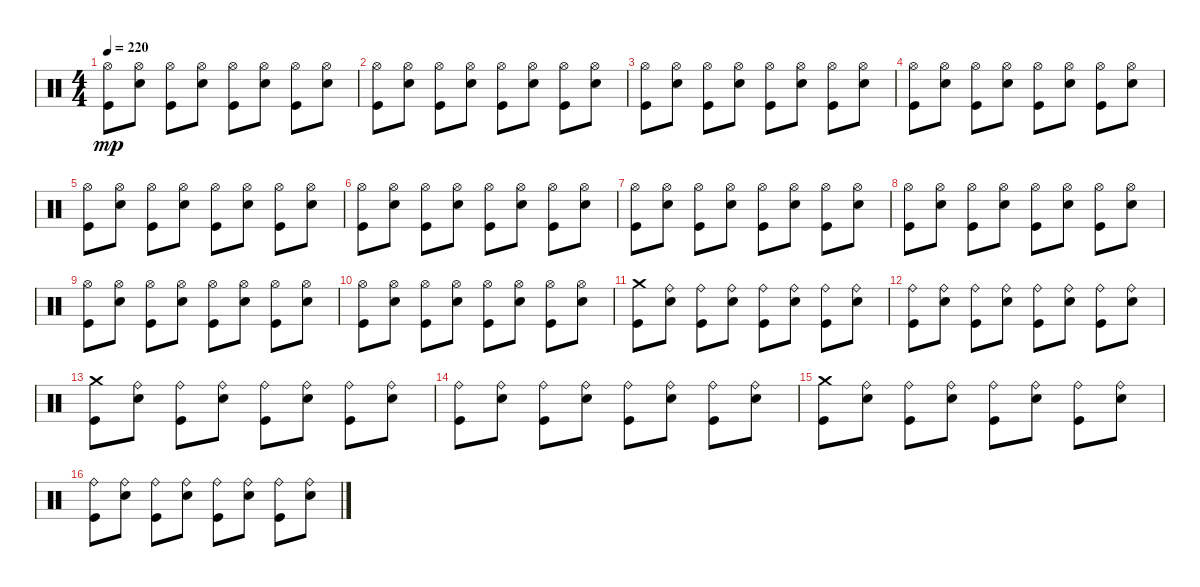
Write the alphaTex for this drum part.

\track "" {instrument percussion}
\staff {score}
\articulation defaults
\ts (4 4)
\tempo 220
\clef neutral
\ks c
("Kick (hit)" "Hi-Hat (open)").8{dy mp} ("Electric Snare (hit)" "Hi-Hat (open)").8 ("Kick (hit)" "Hi-Hat (open)").8 ("Electric Snare (hit)" "Hi-Hat (open)").8 ("Kick (hit)" "Hi-Hat (open)").8 ("Electric Snare (hit)" "Hi-Hat (open)").8 ("Kick (hit)" "Hi-Hat (open)").8 ("Electric Snare (hit)" "Hi-Hat (open)").8 |
("Kick (hit)" "Hi-Hat (open)").8 ("Electric Snare (hit)" "Hi-Hat (open)").8 ("Kick (hit)" "Hi-Hat (open)").8 ("Electric Snare (hit)" "Hi-Hat (open)").8 ("Kick (hit)" "Hi-Hat (open)").8 ("Electric Snare (hit)" "Hi-Hat (open)").8 ("Kick (hit)" "Hi-Hat (open)").8 ("Electric Snare (hit)" "Hi-Hat (open)").8 |
("Kick (hit)" "Hi-Hat (open)").8 ("Electric Snare (hit)" "Hi-Hat (open)").8 ("Kick (hit)" "Hi-Hat (open)").8 ("Electric Snare (hit)" "Hi-Hat (open)").8 ("Kick (hit)" "Hi-Hat (open)").8 ("Electric Snare (hit)" "Hi-Hat (open)").8 ("Kick (hit)" "Hi-Hat (open)").8 ("Electric Snare (hit)" "Hi-Hat (open)").8 |
("Kick (hit)" "Hi-Hat (open)").8 ("Electric Snare (hit)" "Hi-Hat (open)").8 ("Kick (hit)" "Hi-Hat (open)").8 ("Electric Snare (hit)" "Hi-Hat (open)").8 ("Kick (hit)" "Hi-Hat (open)").8 ("Electric Snare (hit)" "Hi-Hat (open)").8 ("Kick (hit)" "Hi-Hat (open)").8 ("Electric Snare (hit)" "Hi-Hat (open)").8 |
("Kick (hit)" "Hi-Hat (open)").8 ("Electric Snare (hit)" "Hi-Hat (open)").8 ("Kick (hit)" "Hi-Hat (open)").8 ("Electric Snare (hit)" "Hi-Hat (open)").8 ("Kick (hit)" "Hi-Hat (open)").8 ("Electric Snare (hit)" "Hi-Hat (open)").8 ("Kick (hit)" "Hi-Hat (open)").8 ("Electric Snare (hit)" "Hi-Hat (open)").8 |
("Kick (hit)" "Hi-Hat (open)").8 ("Electric Snare (hit)" "Hi-Hat (open)").8 ("Kick (hit)" "Hi-Hat (open)").8 ("Electric Snare (hit)" "Hi-Hat (open)").8 ("Kick (hit)" "Hi-Hat (open)").8 ("Electric Snare (hit)" "Hi-Hat (open)").8 ("Kick (hit)" "Hi-Hat (open)").8 ("Electric Snare (hit)" "Hi-Hat (open)").8 |
("Kick (hit)" "Hi-Hat (open)").8 ("Electric Snare (hit)" "Hi-Hat (open)").8 ("Kick (hit)" "Hi-Hat (open)").8 ("Electric Snare (hit)" "Hi-Hat (open)").8 ("Kick (hit)" "Hi-Hat (open)").8 ("Electric Snare (hit)" "Hi-Hat (open)").8 ("Kick (hit)" "Hi-Hat (open)").8 ("Electric Snare (hit)" "Hi-Hat (open)").8 |
("Kick (hit)" "Hi-Hat (open)").8 ("Electric Snare (hit)" "Hi-Hat (open)").8 ("Kick (hit)" "Hi-Hat (open)").8 ("Electric Snare (hit)" "Hi-Hat (open)").8 ("Kick (hit)" "Hi-Hat (open)").8 ("Electric Snare (hit)" "Hi-Hat (open)").8 ("Kick (hit)" "Hi-Hat (open)").8 ("Electric Snare (hit)" "Hi-Hat (open)").8 |
("Kick (hit)" "Hi-Hat (open)").8 ("Electric Snare (hit)" "Hi-Hat (open)").8 ("Kick (hit)" "Hi-Hat (open)").8 ("Electric Snare (hit)" "Hi-Hat (open)").8 ("Kick (hit)" "Hi-Hat (open)").8 ("Electric Snare (hit)" "Hi-Hat (open)").8 ("Kick (hit)" "Hi-Hat (open)").8 ("Electric Snare (hit)" "Hi-Hat (open)").8 |
("Kick (hit)" "Hi-Hat (open)").8 ("Electric Snare (hit)" "Hi-Hat (open)").8 ("Kick (hit)" "Hi-Hat (open)").8 ("Electric Snare (hit)" "Hi-Hat (open)").8 ("Kick (hit)" "Hi-Hat (open)").8 ("Electric Snare (hit)" "Hi-Hat (open)").8 ("Kick (hit)" "Hi-Hat (open)").8 ("Electric Snare (hit)" "Hi-Hat (open)").8 |
("Kick (hit)" "Crash medium (hit)").8 ("Electric Snare (hit)" "Ride (bell)").8 ("Kick (hit)" "Ride (bell)").8 ("Electric Snare (hit)" "Ride (bell)").8 ("Kick (hit)" "Ride (bell)").8 ("Electric Snare (hit)" "Ride (bell)").8 ("Kick (hit)" "Ride (bell)").8 ("Electric Snare (hit)" "Ride (bell)").8 |
("Kick (hit)" "Ride (bell)").8 ("Electric Snare (hit)" "Ride (bell)").8 ("Kick (hit)" "Ride (bell)").8 ("Electric Snare (hit)" "Ride (bell)").8 ("Kick (hit)" "Ride (bell)").8 ("Electric Snare (hit)" "Ride (bell)").8 ("Kick (hit)" "Ride (bell)").8 ("Electric Snare (hit)" "Ride (bell)").8 |
("Kick (hit)" "Crash medium (hit)").8 ("Electric Snare (hit)" "Ride (bell)").8 ("Kick (hit)" "Ride (bell)").8 ("Electric Snare (hit)" "Ride (bell)").8 ("Kick (hit)" "Ride (bell)").8 ("Electric Snare (hit)" "Ride (bell)").8 ("Kick (hit)" "Ride (bell)").8 ("Electric Snare (hit)" "Ride (bell)").8 |
("Kick (hit)" "Ride (bell)").8 ("Electric Snare (hit)" "Ride (bell)").8 ("Kick (hit)" "Ride (bell)").8 ("Electric Snare (hit)" "Ride (bell)").8 ("Kick (hit)" "Ride (bell)").8 ("Electric Snare (hit)" "Ride (bell)").8 ("Kick (hit)" "Ride (bell)").8 ("Electric Snare (hit)" "Ride (bell)").8 |
("Kick (hit)" "Crash medium (hit)").8 ("Electric Snare (hit)" "Ride (bell)").8 ("Kick (hit)" "Ride (bell)").8 ("Electric Snare (hit)" "Ride (bell)").8 ("Kick (hit)" "Ride (bell)").8 ("Electric Snare (hit)" "Ride (bell)").8 ("Kick (hit)" "Ride (bell)").8 ("Electric Snare (hit)" "Ride (bell)").8 |
("Kick (hit)" "Ride (bell)").8 ("Electric Snare (hit)" "Ride (bell)").8 ("Kick (hit)" "Ride (bell)").8 ("Electric Snare (hit)" "Ride (bell)").8 ("Kick (hit)" "Ride (bell)").8 ("Electric Snare (hit)" "Ride (bell)").8 ("Kick (hit)" "Ride (bell)").8 ("Electric Snare (hit)" "Ride (bell)").8
